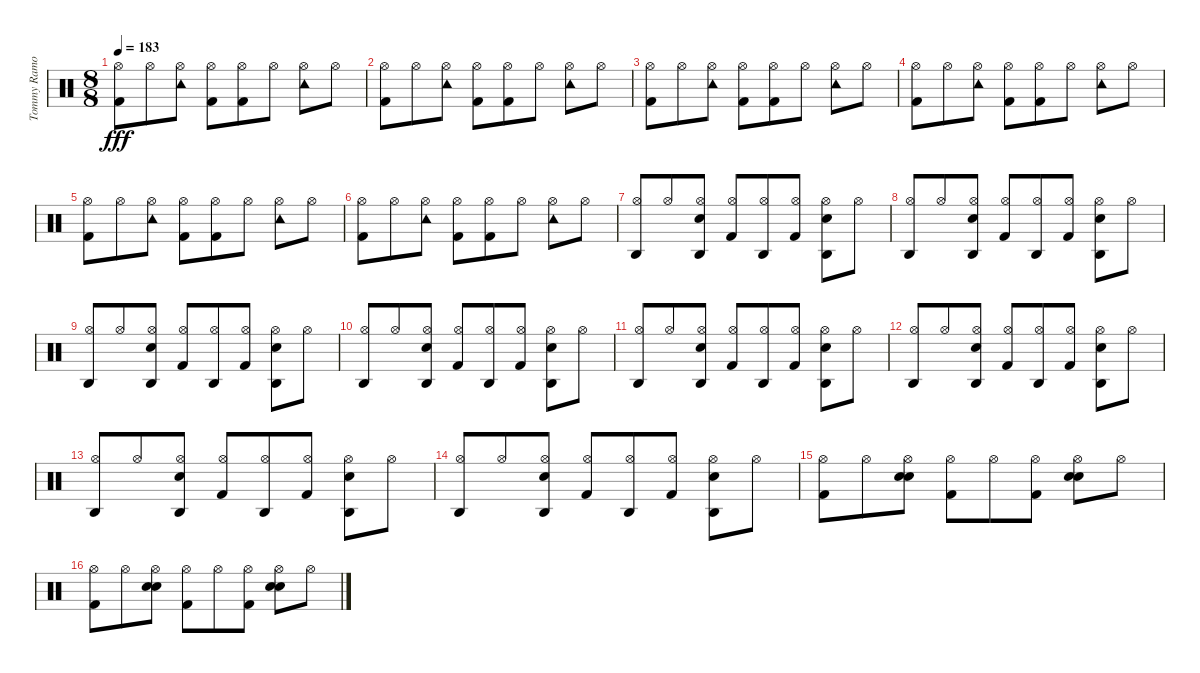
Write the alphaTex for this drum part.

\track ("Tommy Ramone - Drums" "Tommy Ramo") {instrument percussion}
\staff {score}
\articulation defaults
\ts (8 8)
\tempo 183
\clef neutral
\ks c
("Kick (hit) 2" "Hi-Hat (open)").8{dy fff} "Hi-Hat (open)".8 ("Tambourine (hit)" "Hi-Hat (open)").8 ("Kick (hit) 2" "Hi-Hat (open)").8 ("Kick (hit) 2" "Hi-Hat (open)").8 "Hi-Hat (open)".8 ("Tambourine (hit)" "Hi-Hat (open)").8 "Hi-Hat (open)".8 |
("Kick (hit) 2" "Hi-Hat (open)").8 "Hi-Hat (open)".8 ("Tambourine (hit)" "Hi-Hat (open)").8 ("Kick (hit) 2" "Hi-Hat (open)").8 ("Kick (hit) 2" "Hi-Hat (open)").8 "Hi-Hat (open)".8 ("Tambourine (hit)" "Hi-Hat (open)").8 "Hi-Hat (open)".8 |
("Kick (hit) 2" "Hi-Hat (open)").8 "Hi-Hat (open)".8 ("Tambourine (hit)" "Hi-Hat (open)").8 ("Kick (hit) 2" "Hi-Hat (open)").8 ("Kick (hit) 2" "Hi-Hat (open)").8 "Hi-Hat (open)".8 ("Tambourine (hit)" "Hi-Hat (open)").8 "Hi-Hat (open)".8 |
("Kick (hit) 2" "Hi-Hat (open)").8 "Hi-Hat (open)".8 ("Tambourine (hit)" "Hi-Hat (open)").8 ("Kick (hit) 2" "Hi-Hat (open)").8 ("Kick (hit) 2" "Hi-Hat (open)").8 "Hi-Hat (open)".8 ("Tambourine (hit)" "Hi-Hat (open)").8 "Hi-Hat (open)".8 |
("Kick (hit) 2" "Hi-Hat (open)").8 "Hi-Hat (open)".8 ("Tambourine (hit)" "Hi-Hat (open)").8 ("Kick (hit) 2" "Hi-Hat (open)").8 ("Kick (hit) 2" "Hi-Hat (open)").8 "Hi-Hat (open)".8 ("Tambourine (hit)" "Hi-Hat (open)").8 "Hi-Hat (open)".8 |
("Kick (hit) 2" "Hi-Hat (open)").8 "Hi-Hat (open)".8 ("Tambourine (hit)" "Hi-Hat (open)").8 ("Kick (hit) 2" "Hi-Hat (open)").8 ("Kick (hit) 2" "Hi-Hat (open)").8 "Hi-Hat (open)".8 ("Tambourine (hit)" "Hi-Hat (open)").8 "Hi-Hat (open)".8 |
("Agogo high (hit)" "Hi-Hat (open)").8 "Hi-Hat (open)".8 ("Agogo high (hit)" "Snare (hit) 2" "Hi-Hat (open)").8 ("Kick (hit) 2" "Hi-Hat (open)").8 ("Agogo high (hit)" "Hi-Hat (open)").8 ("Kick (hit) 2" "Hi-Hat (open)").8 ("Agogo high (hit)" "Snare (hit) 2" "Hi-Hat (open)").8 "Hi-Hat (open)".8 |
("Agogo high (hit)" "Hi-Hat (open)").8 "Hi-Hat (open)".8 ("Agogo high (hit)" "Snare (hit) 2" "Hi-Hat (open)").8 ("Kick (hit) 2" "Hi-Hat (open)").8 ("Agogo high (hit)" "Hi-Hat (open)").8 ("Kick (hit) 2" "Hi-Hat (open)").8 ("Agogo high (hit)" "Snare (hit) 2" "Hi-Hat (open)").8 "Hi-Hat (open)".8 |
("Agogo high (hit)" "Hi-Hat (open)").8 "Hi-Hat (open)".8 ("Agogo high (hit)" "Snare (hit) 2" "Hi-Hat (open)").8 ("Kick (hit) 2" "Hi-Hat (open)").8 ("Agogo high (hit)" "Hi-Hat (open)").8 ("Kick (hit) 2" "Hi-Hat (open)").8 ("Agogo high (hit)" "Snare (hit) 2" "Hi-Hat (open)").8 "Hi-Hat (open)".8 |
("Agogo high (hit)" "Hi-Hat (open)").8 "Hi-Hat (open)".8 ("Agogo high (hit)" "Snare (hit) 2" "Hi-Hat (open)").8 ("Kick (hit) 2" "Hi-Hat (open)").8 ("Agogo high (hit)" "Hi-Hat (open)").8 ("Kick (hit) 2" "Hi-Hat (open)").8 ("Agogo high (hit)" "Snare (hit) 2" "Hi-Hat (open)").8 "Hi-Hat (open)".8 |
("Agogo high (hit)" "Hi-Hat (open)").8 "Hi-Hat (open)".8 ("Agogo high (hit)" "Snare (hit) 2" "Hi-Hat (open)").8 ("Kick (hit) 2" "Hi-Hat (open)").8 ("Agogo high (hit)" "Hi-Hat (open)").8 ("Kick (hit) 2" "Hi-Hat (open)").8 ("Agogo high (hit)" "Snare (hit) 2" "Hi-Hat (open)").8 "Hi-Hat (open)".8 |
("Agogo high (hit)" "Hi-Hat (open)").8 "Hi-Hat (open)".8 ("Agogo high (hit)" "Snare (hit) 2" "Hi-Hat (open)").8 ("Kick (hit) 2" "Hi-Hat (open)").8 ("Agogo high (hit)" "Hi-Hat (open)").8 ("Kick (hit) 2" "Hi-Hat (open)").8 ("Agogo high (hit)" "Snare (hit) 2" "Hi-Hat (open)").8 "Hi-Hat (open)".8 |
("Agogo high (hit)" "Hi-Hat (open)").8 "Hi-Hat (open)".8 ("Agogo high (hit)" "Snare (hit) 2" "Hi-Hat (open)").8 ("Kick (hit) 2" "Hi-Hat (open)").8 ("Agogo high (hit)" "Hi-Hat (open)").8 ("Kick (hit) 2" "Hi-Hat (open)").8 ("Agogo high (hit)" "Snare (hit) 2" "Hi-Hat (open)").8 "Hi-Hat (open)".8 |
("Agogo high (hit)" "Hi-Hat (open)").8 "Hi-Hat (open)".8 ("Agogo high (hit)" "Snare (hit) 2" "Hi-Hat (open)").8 ("Kick (hit) 2" "Hi-Hat (open)").8 ("Agogo high (hit)" "Hi-Hat (open)").8 ("Kick (hit) 2" "Hi-Hat (open)").8 ("Agogo high (hit)" "Snare (hit) 2" "Hi-Hat (open)").8 "Hi-Hat (open)".8 |
("Kick (hit) 2" "Hi-Hat (open)").8 "Hi-Hat (open)".8 ("Hand Clap (hit)" "Snare (hit) 2" "Hi-Hat (open)").8 ("Kick (hit) 2" "Hi-Hat (open)").8 "Hi-Hat (open)".8 ("Kick (hit) 2" "Hi-Hat (open)").8 ("Hand Clap (hit)" "Snare (hit) 2" "Hi-Hat (open)").8 "Hi-Hat (open)".8 |
("Kick (hit) 2" "Hi-Hat (open)").8 "Hi-Hat (open)".8 ("Hand Clap (hit)" "Snare (hit) 2" "Hi-Hat (open)").8 ("Kick (hit) 2" "Hi-Hat (open)").8 "Hi-Hat (open)".8 ("Kick (hit) 2" "Hi-Hat (open)").8 ("Hand Clap (hit)" "Snare (hit) 2" "Hi-Hat (open)").8 "Hi-Hat (open)".8
